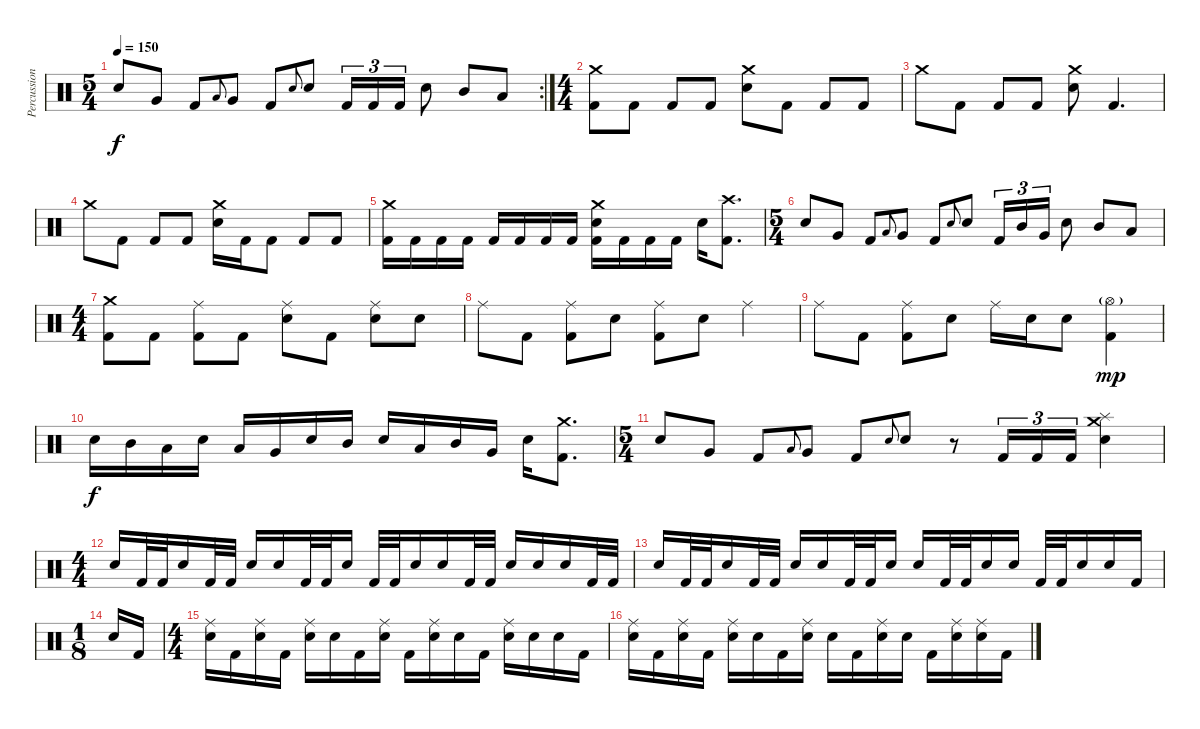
\track ("Percussion" "Percussion") {instrument percussion}
\staff {score}
\articulation defaults
\rc 2
\ts (5 4)
\tempo 150
\clef neutral
\ks c "Electric Snare (hit)".8{dy f} "Very Low Tom (hit)".8 "Kick (hit) 2".8 "Low Floor Tom (hit)".8{gr onbeat} "Very Low Tom (hit)".8 "Kick (hit) 2".8 "Electric Snare (hit)".8{gr onbeat} "Electric Snare (hit)".8 "Kick (hit) 2".16{tu (3 2)} "Kick (hit) 2".16{tu (3 2)} "Kick (hit) 2".16{tu (3 2)} "Electric Snare (hit)".8 "Mid Tom (hit)".8 "Low Tom (hit)".8
|
\ts (4 4)
("Crash medium (hit)" "Kick (hit) 2").8 "Kick (hit) 2".8 "Kick (hit) 2".8 "Kick (hit) 2".8 ("Crash medium (hit)" "Electric Snare (hit)").8 "Kick (hit) 2".8 "Kick (hit) 2".8 "Kick (hit) 2".8 |
"Crash medium (hit)".8 "Kick (hit) 2".8 "Kick (hit) 2".8 "Kick (hit) 2".8 ("Crash medium (hit)" "Electric Snare (hit)").8 "Kick (hit) 2".4{d} |
"Crash medium (hit)".8 "Kick (hit) 2".8 "Kick (hit) 2".8 "Kick (hit) 2".8 ("Crash medium (hit)" "Electric Snare (hit)").16 "Kick (hit) 2".16 "Kick (hit) 2".8 "Kick (hit) 2".8 "Kick (hit) 2".8 |
("Crash medium (hit)" "Kick (hit) 2").16 "Kick (hit) 2".16 "Kick (hit) 2".16 "Kick (hit) 2".16 "Kick (hit) 2".16 "Kick (hit) 2".16 "Kick (hit) 2".16 "Kick (hit) 2".16 ("Crash medium (hit)" "Electric Snare (hit)" "Kick (hit) 2").16 "Kick (hit) 2".16 "Kick (hit) 2".16 "Kick (hit) 2".16 "Electric Snare (hit)".16 ("Crash high (hit)" "Kick (hit) 2").8{d} |
\ts (5 4)
"Electric Snare (hit)".8 "Very Low Tom (hit)".8 "Kick (hit) 2".8 "Low Floor Tom (hit)".8{gr onbeat} "Very Low Tom (hit)".8 "Kick (hit) 2".8 "Electric Snare (hit)".8{gr onbeat} "Electric Snare (hit)".8 "Kick (hit) 2".16{tu (3 2)} "Mid Tom (hit)".16{tu (3 2)} "Very Low Tom (hit)".16{tu (3 2)} "Electric Snare (hit)".8 "Mid Tom (hit)".8 "Low Tom (hit)".8 |
\ts (4 4)
("Crash medium (hit)" "Kick (hit) 2").8 "Kick (hit) 2".8 ("Ride (middle)" "Kick (hit) 2").8 "Kick (hit) 2".8 ("Ride (middle)" "Electric Snare (hit)").8 "Kick (hit) 2".8 ("Ride (middle)" "Electric Snare (hit)").8 "Electric Snare (hit)".8 |
"Ride (middle)".8 "Kick (hit) 2".8 ("Ride (middle)" "Kick (hit) 2").8 "Electric Snare (hit)".8 ("Ride (middle)" "Kick (hit) 2").8 "Electric Snare (hit)".8 "Ride (middle)".4 |
"Ride (middle)".8 "Kick (hit) 2".8 ("Ride (middle)" "Kick (hit) 2").8 "Electric Snare (hit)".8 "Ride (middle)".16 "Electric Snare (hit)".16 "Electric Snare (hit)".8 ("Hi-Hat (open)"{g} "Kick (hit) 2").4{dy mp} |
"Electric Snare (hit)".16{dy f} "Mid Tom (hit)".16 "Low Tom (hit)".16 "Electric Snare (hit)".16 "Low Tom (hit)".16 "Very Low Tom (hit)".16 "Electric Snare (hit)".16 "Mid Tom (hit)".16 "Electric Snare (hit)".16 "Low Tom (hit)".16 "Mid Tom (hit)".16 "Very Low Tom (hit)".16 "Electric Snare (hit)".16 ("Crash medium (hit)" "Kick (hit) 2").8{d} |
\ts (5 4)
"Electric Snare (hit)".8 "Very Low Tom (hit)".8 "Kick (hit) 2".8 "Low Floor Tom (hit)".8{gr onbeat} "Very Low Tom (hit)".8 "Kick (hit) 2".8 "Electric Snare (hit)".8{gr onbeat} "Electric Snare (hit)".8 r.8 "Kick (hit) 2".16{tu (3 2)} "Kick (hit) 2".16{tu (3 2)} "Kick (hit) 2".16{tu (3 2)} ("Splash (hit)" "Crash medium (hit)" "Electric Snare (hit)").4 |
\ts (4 4)
"Electric Snare (hit)".16 "Kick (hit) 2".32 "Kick (hit) 2".32 "Electric Snare (hit)".16 "Kick (hit) 2".32 "Kick (hit) 2".32 "Electric Snare (hit)".16 "Electric Snare (hit)".16 "Kick (hit) 2".32 "Kick (hit) 2".32 "Electric Snare (hit)".16 "Kick (hit) 2".32 "Kick (hit) 2".32 "Electric Snare (hit)".16 "Electric Snare (hit)".16 "Kick (hit) 2".32 "Kick (hit) 2".32 "Electric Snare (hit)".16 "Electric Snare (hit)".16 "Electric Snare (hit)".16 "Kick (hit) 2".32 "Kick (hit) 2".32 |
"Electric Snare (hit)".16 "Kick (hit) 2".32 "Kick (hit) 2".32 "Electric Snare (hit)".16 "Kick (hit) 2".32 "Kick (hit) 2".32 "Electric Snare (hit)".16 "Electric Snare (hit)".16 "Kick (hit) 2".32 "Kick (hit) 2".32 "Electric Snare (hit)".16 "Electric Snare (hit)".16 "Kick (hit) 2".32 "Kick (hit) 2".32 "Electric Snare (hit)".16 "Electric Snare (hit)".16 "Kick (hit) 2".32 "Kick (hit) 2".32 "Electric Snare (hit)".16 "Electric Snare (hit)".16 "Kick (hit) 2".16 |
\ts (1 8)
"Electric Snare (hit)".16 "Kick (hit) 2".16 |
\ts (4 4)
("Ride (middle)" "Electric Snare (hit)").16 "Kick (hit) 2".16 ("Ride (middle)" "Electric Snare (hit)").16 "Kick (hit) 2".16 ("Ride (middle)" "Electric Snare (hit)").16 "Electric Snare (hit)".16 "Kick (hit) 2".16 ("Ride (middle)" "Electric Snare (hit)").16 "Kick (hit) 2".16 ("Ride (middle)" "Electric Snare (hit)").16 "Electric Snare (hit)".16 "Kick (hit) 2".16 ("Ride (middle)" "Electric Snare (hit)").16 "Electric Snare (hit)".16 "Electric Snare (hit)".16 "Kick (hit) 2".16 |
("Ride (middle)" "Electric Snare (hit)").16 "Kick (hit) 2".16 ("Ride (middle)" "Electric Snare (hit)").16 "Kick (hit) 2".16 ("Ride (middle)" "Electric Snare (hit)").16 "Electric Snare (hit)".16 "Kick (hit) 2".16 ("Ride (middle)" "Electric Snare (hit)").16 "Electric Snare (hit)".16 "Kick (hit) 2".16 ("Ride (middle)" "Electric Snare (hit)").16 "Electric Snare (hit)".16 "Kick (hit) 2".16 ("Ride (middle)" "Electric Snare (hit)").16 ("Ride (middle)" "Electric Snare (hit)").16 "Kick (hit) 2".16
